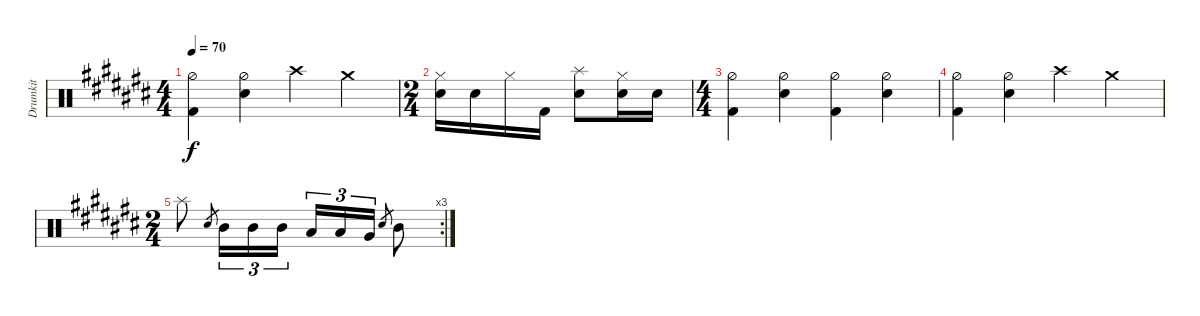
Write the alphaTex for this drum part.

\track ("Drumkit" "Drumkit") {instrument percussion}
\staff {score}
\articulation defaults
\ts (4 4)
\tempo 70
\clef neutral
\ks a#minor
("Hi-Hat (half)" "Kick (hit) 2").4{dy f} ("Hi-Hat (half)" "Snare (hit) 2").4 "Crash high (hit)".4 "Crash medium (hit)".4 |
\ts (2 4)
("Snare (hit) 2" "Hi-Hat (closed)").16 "Snare (hit) 2".16 "Hi-Hat (closed)".16 "Kick (hit) 2".16 ("Snare (hit) 2" "Splash (hit)").8 ("Snare (hit) 2" "Hi-Hat (closed)").16 "Snare (hit) 2".16 |
\ts (4 4)
("Hi-Hat (half)" "Kick (hit) 2").4 ("Hi-Hat (half)" "Snare (hit) 2").4 ("Hi-Hat (half)" "Kick (hit) 2").4 ("Hi-Hat (half)" "Snare (hit) 2").4 |
("Hi-Hat (half)" "Kick (hit) 2").4 ("Hi-Hat (half)" "Snare (hit) 2").4 "Crash high (hit)".4 "Crash medium (hit)".4 |
\rc 3
\ts (2 4)
"Splash (hit)".8 "Snare (hit)".8{gr} "Mid Tom (hit)".16{tu (3 2)} "Mid Tom (hit)".16{tu (3 2)} "Mid Tom (hit)".16{tu (3 2)} "Low Tom (hit)".16{tu (3 2)} "Low Tom (hit)".16{tu (3 2)} "Very Low Tom (hit)".16{tu (3 2)} "Snare (hit)".8{gr} "Mid Tom (hit)".8
